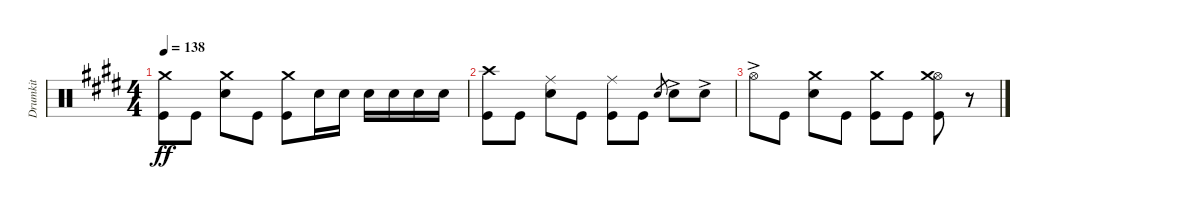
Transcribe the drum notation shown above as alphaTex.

\track ("Drumkit" "Drumkit") {instrument percussion}
\staff {score}
\articulation defaults
\ts (4 4)
\tempo 138
\clef neutral
\ks c#minor
("Kick (hit)" "Crash medium (hit)").8{dy ff} "Kick (hit)".8 ("Snare (hit) 2" "Crash medium (hit)").8 "Kick (hit)".8 ("Kick (hit)" "Crash medium (hit)").8 "Snare (hit) 2".16 "Snare (hit) 2".16 "Snare (hit) 2".16 "Snare (hit) 2".16 "Snare (hit) 2".16 "Snare (hit) 2".16 |
("Kick (hit)" "Crash high (hit)").8 "Kick (hit)".8 ("Snare (hit) 2" "Ride (middle)").8 "Kick (hit)".8 ("Kick (hit)" "Ride (middle)").8 "Kick (hit)".8 "Snare (hit)".8{gr} "Snare (hit) 2"{ac}.8 "Snare (hit) 2"{ac}.8 |
"Hi-Hat (open)"{ac}.8 "Kick (hit)".8 ("Snare (hit) 2" "Crash medium (hit)").8 "Kick (hit)".8 ("Kick (hit)" "Crash medium (hit)").8 "Kick (hit)".8 ("Hi-Hat (open)" "Kick (hit)" "Crash medium (hit)").8 r.8
